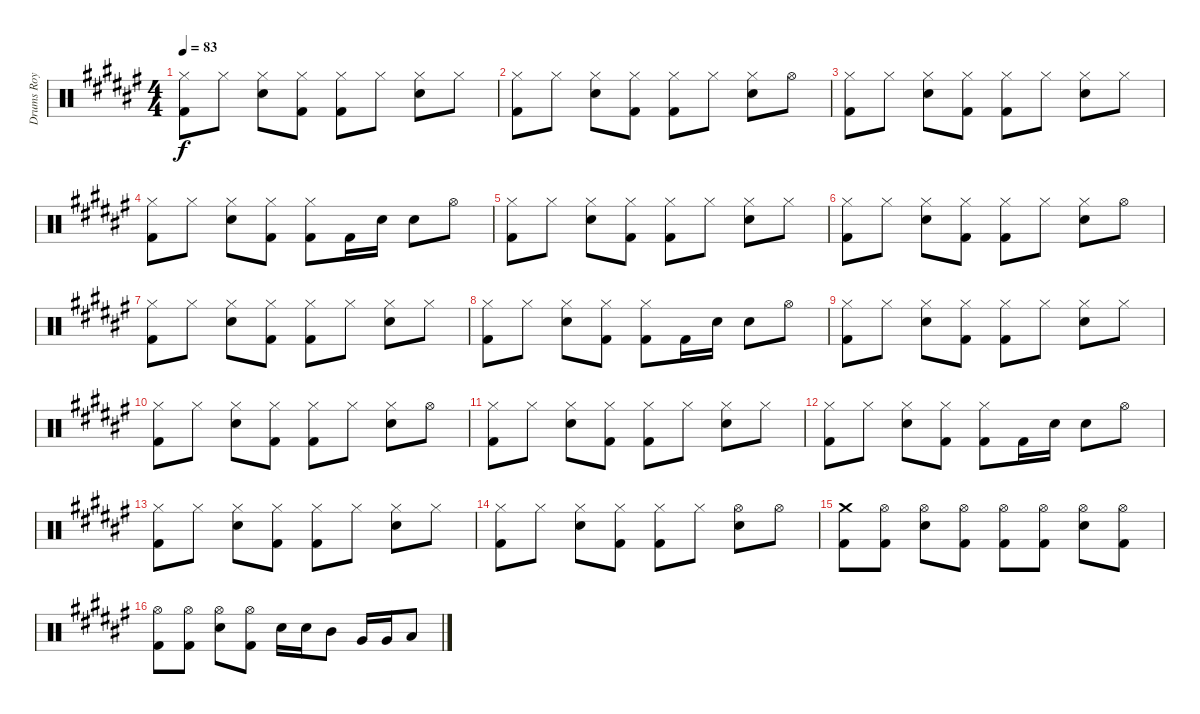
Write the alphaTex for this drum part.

\track ("Drums Roy" "Drums Roy") {instrument percussion}
\staff {score}
\articulation defaults
\ts (4 4)
\tempo 83
\clef neutral
\ks d#minor
("Hi-Hat (closed)" "Kick (hit) 2").8{dy f} "Hi-Hat (closed)".8 ("Hi-Hat (closed)" "Electric Snare (hit)").8 ("Hi-Hat (closed)" "Kick (hit) 2").8 ("Hi-Hat (closed)" "Kick (hit) 2").8 "Hi-Hat (closed)".8 ("Hi-Hat (closed)" "Electric Snare (hit)").8 "Hi-Hat (closed)".8 |
("Hi-Hat (closed)" "Kick (hit) 2").8 "Hi-Hat (closed)".8 ("Hi-Hat (closed)" "Electric Snare (hit)").8 ("Hi-Hat (closed)" "Kick (hit) 2").8 ("Hi-Hat (closed)" "Kick (hit) 2").8 "Hi-Hat (closed)".8 ("Hi-Hat (closed)" "Electric Snare (hit)").8 "Hi-Hat (open)".8 |
("Hi-Hat (closed)" "Kick (hit) 2").8 "Hi-Hat (closed)".8 ("Hi-Hat (closed)" "Electric Snare (hit)").8 ("Hi-Hat (closed)" "Kick (hit) 2").8 ("Hi-Hat (closed)" "Kick (hit) 2").8 "Hi-Hat (closed)".8 ("Hi-Hat (closed)" "Electric Snare (hit)").8 "Hi-Hat (closed)".8 |
("Hi-Hat (closed)" "Kick (hit) 2").8 "Hi-Hat (closed)".8 ("Hi-Hat (closed)" "Electric Snare (hit)").8 ("Hi-Hat (closed)" "Kick (hit) 2").8 ("Hi-Hat (closed)" "Kick (hit) 2").8 "Kick (hit) 2".16 "Electric Snare (hit)".16 "Electric Snare (hit)".8 "Hi-Hat (open)".8 |
("Hi-Hat (closed)" "Kick (hit) 2").8 "Hi-Hat (closed)".8 ("Hi-Hat (closed)" "Electric Snare (hit)").8 ("Hi-Hat (closed)" "Kick (hit) 2").8 ("Hi-Hat (closed)" "Kick (hit) 2").8 "Hi-Hat (closed)".8 ("Hi-Hat (closed)" "Electric Snare (hit)").8 "Hi-Hat (closed)".8 |
("Hi-Hat (closed)" "Kick (hit) 2").8 "Hi-Hat (closed)".8 ("Hi-Hat (closed)" "Electric Snare (hit)").8 ("Hi-Hat (closed)" "Kick (hit) 2").8 ("Hi-Hat (closed)" "Kick (hit) 2").8 "Hi-Hat (closed)".8 ("Hi-Hat (closed)" "Electric Snare (hit)").8 "Hi-Hat (open)".8 |
("Hi-Hat (closed)" "Kick (hit) 2").8 "Hi-Hat (closed)".8 ("Hi-Hat (closed)" "Electric Snare (hit)").8 ("Hi-Hat (closed)" "Kick (hit) 2").8 ("Hi-Hat (closed)" "Kick (hit) 2").8 "Hi-Hat (closed)".8 ("Hi-Hat (closed)" "Electric Snare (hit)").8 "Hi-Hat (closed)".8 |
("Hi-Hat (closed)" "Kick (hit) 2").8 "Hi-Hat (closed)".8 ("Hi-Hat (closed)" "Electric Snare (hit)").8 ("Hi-Hat (closed)" "Kick (hit) 2").8 ("Hi-Hat (closed)" "Kick (hit) 2").8 "Kick (hit) 2".16 "Electric Snare (hit)".16 "Electric Snare (hit)".8 "Hi-Hat (open)".8 |
("Hi-Hat (closed)" "Kick (hit) 2").8 "Hi-Hat (closed)".8 ("Hi-Hat (closed)" "Electric Snare (hit)").8 ("Hi-Hat (closed)" "Kick (hit) 2").8 ("Hi-Hat (closed)" "Kick (hit) 2").8 "Hi-Hat (closed)".8 ("Hi-Hat (closed)" "Electric Snare (hit)").8 "Hi-Hat (closed)".8 |
("Hi-Hat (closed)" "Kick (hit) 2").8 "Hi-Hat (closed)".8 ("Hi-Hat (closed)" "Electric Snare (hit)").8 ("Hi-Hat (closed)" "Kick (hit) 2").8 ("Hi-Hat (closed)" "Kick (hit) 2").8 "Hi-Hat (closed)".8 ("Hi-Hat (closed)" "Electric Snare (hit)").8 "Hi-Hat (open)".8 |
("Hi-Hat (closed)" "Kick (hit) 2").8 "Hi-Hat (closed)".8 ("Hi-Hat (closed)" "Electric Snare (hit)").8 ("Hi-Hat (closed)" "Kick (hit) 2").8 ("Hi-Hat (closed)" "Kick (hit) 2").8 "Hi-Hat (closed)".8 ("Hi-Hat (closed)" "Electric Snare (hit)").8 "Hi-Hat (closed)".8 |
("Hi-Hat (closed)" "Kick (hit) 2").8 "Hi-Hat (closed)".8 ("Hi-Hat (closed)" "Electric Snare (hit)").8 ("Hi-Hat (closed)" "Kick (hit) 2").8 ("Hi-Hat (closed)" "Kick (hit) 2").8 "Kick (hit) 2".16 "Electric Snare (hit)".16 "Electric Snare (hit)".8 "Hi-Hat (open)".8 |
("Hi-Hat (closed)" "Kick (hit) 2").8 "Hi-Hat (closed)".8 ("Hi-Hat (closed)" "Electric Snare (hit)").8 ("Hi-Hat (closed)" "Kick (hit) 2").8 ("Hi-Hat (closed)" "Kick (hit) 2").8 "Hi-Hat (closed)".8 ("Hi-Hat (closed)" "Electric Snare (hit)").8 "Hi-Hat (closed)".8 |
("Hi-Hat (closed)" "Kick (hit) 2").8 "Hi-Hat (closed)".8 ("Hi-Hat (closed)" "Electric Snare (hit)").8 ("Hi-Hat (closed)" "Kick (hit) 2").8 ("Hi-Hat (closed)" "Kick (hit) 2").8 "Hi-Hat (closed)".8 ("Hi-Hat (open)" "Electric Snare (hit)").8 "Hi-Hat (open)".8 |
("Crash medium (hit)" "Kick (hit) 2").8 ("Hi-Hat (open)" "Kick (hit) 2").8 ("Hi-Hat (open)" "Electric Snare (hit)").8 ("Hi-Hat (open)" "Kick (hit) 2").8 ("Hi-Hat (open)" "Kick (hit) 2").8 ("Hi-Hat (open)" "Kick (hit) 2").8 ("Hi-Hat (open)" "Electric Snare (hit)").8 ("Hi-Hat (open)" "Kick (hit) 2").8 |
("Hi-Hat (open)" "Kick (hit) 2").8 ("Hi-Hat (open)" "Kick (hit) 2").8 ("Hi-Hat (open)" "Electric Snare (hit)").8 ("Hi-Hat (open)" "Kick (hit) 2").8 "Electric Snare (hit)".16 "Electric Snare (hit)".16 "Mid Tom (hit)".8 "Very Low Tom (hit)".16 "Very Low Tom (hit)".16 "Low Floor Tom (hit)".8
